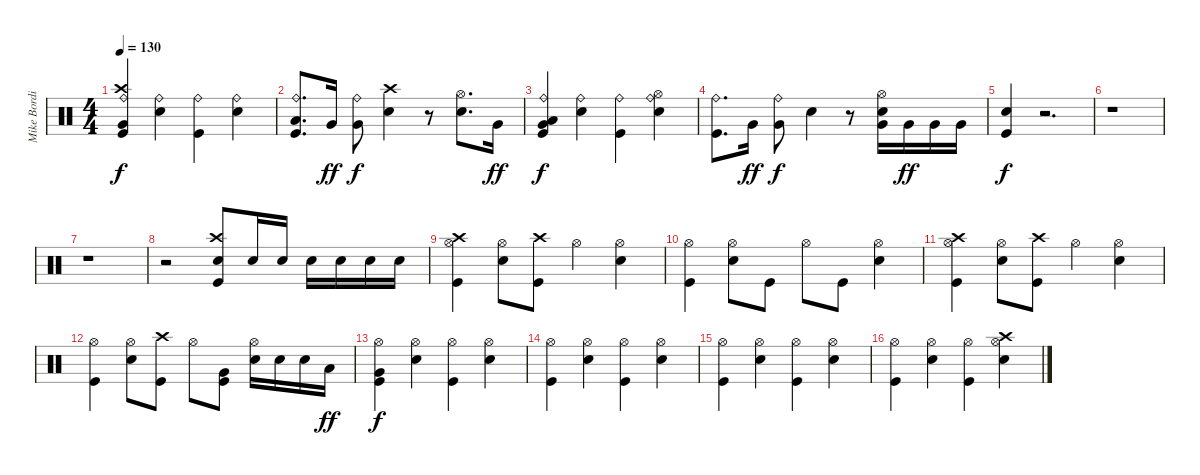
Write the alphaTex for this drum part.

\track ("Mike Bordin" "Mike Bordi") {instrument percussion}
\staff {score}
\articulation defaults
\ts (4 4)
\tempo 130
\clef neutral
\ks c
("Kick (hit)" "Ride (bell)" "Crash high (hit)" "Very Low Tom (hit)").4{dy f} ("Snare (hit) 2" "Ride (bell)").4 ("Kick (hit)" "Ride (bell)").4 ("Snare (hit) 2" "Ride (bell)").4 |
("Kick (hit)" "Ride (bell)" "Low Tom (hit)").8{d} "Very Low Tom (hit)".16{dy ff} ("Ride (bell)" "Very Low Tom (hit)").8{dy f} ("Snare (hit) 2" "Crash high (hit)").4 r.8 ("Snare (hit) 2" "Hi-Hat (open)").8{d} "Very Low Tom (hit)".16{dy ff} |
("Kick (hit)" "Ride (bell)" "Very Low Tom (hit)" "Low Tom (hit)").4{dy f} ("Snare (hit) 2" "Ride (bell)").4 ("Kick (hit)" "Ride (bell)").4 ("Snare (hit) 2" "Hi-Hat (open)" "Ride (bell)").4 |
("Kick (hit)" "Ride (bell)").8{d} "Very Low Tom (hit)".16{dy ff} ("Ride (bell)" "Very Low Tom (hit)").8{dy f} "Snare (hit) 2".4 r.8 ("Snare (hit) 2" "Hi-Hat (open)" "Very Low Tom (hit)").16 "Very Low Tom (hit)".16{dy ff} "Very Low Tom (hit)".16 "Very Low Tom (hit)".16 |
("Kick (hit)" "Snare (hit) 2").4{dy f} r.2{d} |
r.1 |
r.1 |
r.2 ("Kick (hit)" "Snare (hit) 2" "Crash high (hit)").8 "Snare (hit) 2".16 "Snare (hit) 2".16 "Snare (hit) 2".16 "Snare (hit) 2".16 "Snare (hit) 2".16 "Snare (hit) 2".16 |
("Kick (hit)" "Hi-Hat (open)" "Crash high (hit)").4 ("Snare (hit) 2" "Hi-Hat (open)").8 ("Kick (hit)" "Crash high (hit)").8 "Hi-Hat (open)".4 ("Snare (hit) 2" "Hi-Hat (open)").4 |
("Kick (hit)" "Hi-Hat (open)").4 ("Snare (hit) 2" "Hi-Hat (open)").8 "Kick (hit)".8 "Hi-Hat (open)".8 "Kick (hit)".8 ("Snare (hit) 2" "Hi-Hat (open)").4 |
("Kick (hit)" "Hi-Hat (open)" "Crash high (hit)").4 ("Snare (hit) 2" "Hi-Hat (open)").8 ("Kick (hit)" "Crash high (hit)").8 "Hi-Hat (open)".4 ("Snare (hit) 2" "Hi-Hat (open)").4 |
("Kick (hit)" "Hi-Hat (open)").4 ("Snare (hit) 2" "Hi-Hat (open)").8 ("Kick (hit)" "Crash high (hit)").8 "Hi-Hat (open)".8 ("Kick (hit)" "Very Low Tom (hit)").8 ("Snare (hit) 2" "Hi-Hat (open)").16 "Snare (hit) 2".16 "Snare (hit) 2".16 "Low Tom (hit)".16{dy ff} |
("Kick (hit)" "Hi-Hat (open)" "Very Low Tom (hit)").4{dy f} ("Snare (hit) 2" "Hi-Hat (open)").4 ("Kick (hit)" "Hi-Hat (open)").4 ("Snare (hit) 2" "Hi-Hat (open)").4 |
("Kick (hit)" "Hi-Hat (open)").4 ("Snare (hit) 2" "Hi-Hat (open)").4 ("Kick (hit)" "Hi-Hat (open)").4 ("Snare (hit) 2" "Hi-Hat (open)").4 |
("Kick (hit)" "Hi-Hat (open)").4 ("Snare (hit) 2" "Hi-Hat (open)").4 ("Kick (hit)" "Hi-Hat (open)").4 ("Snare (hit) 2" "Hi-Hat (open)").4 |
("Kick (hit)" "Hi-Hat (open)").4 ("Snare (hit) 2" "Hi-Hat (open)").4 ("Kick (hit)" "Hi-Hat (open)").4 ("Snare (hit) 2" "Hi-Hat (open)" "Crash high (hit)").4
